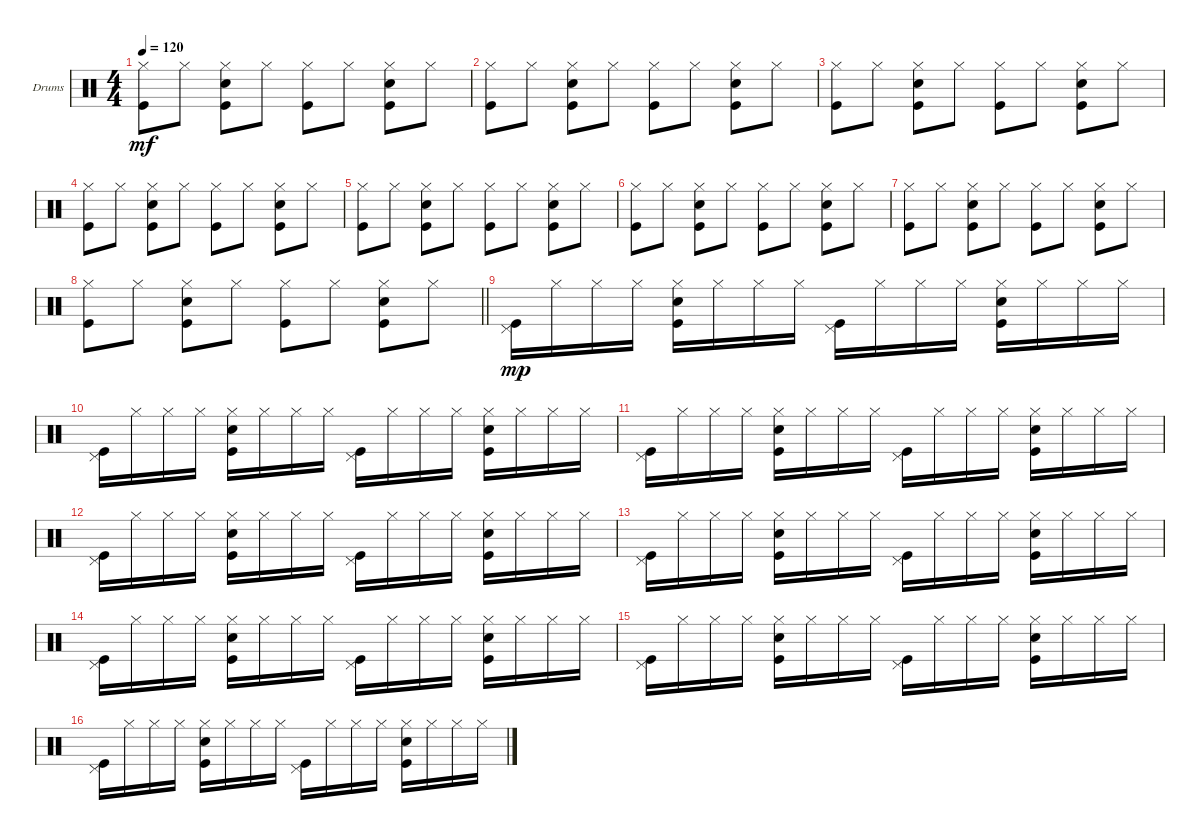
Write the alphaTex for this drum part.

\bracketExtendMode groupsimilarinstruments
\firstSystemTrackNameOrientation horizontal
\otherSystemsTrackNameOrientation horizontal
\track ("Ударные" "Drums") {instrument percussion}
\staff {score}
\articulation defaults
\ts (4 4)
\tempo 120
\clef neutral
\ks c
("Hi-Hat (closed)" "Kick (hit)").8{dy mf} "Hi-Hat (closed)".8 ("Hi-Hat (closed)" "Snare (hit) 2" "Kick (hit)").8 "Hi-Hat (closed)".8 ("Hi-Hat (closed)" "Kick (hit)").8 "Hi-Hat (closed)".8 ("Hi-Hat (closed)" "Snare (hit) 2" "Kick (hit)").8 "Hi-Hat (closed)".8 |
("Hi-Hat (closed)" "Kick (hit)").8 "Hi-Hat (closed)".8 ("Hi-Hat (closed)" "Snare (hit) 2" "Kick (hit)").8 "Hi-Hat (closed)".8 ("Hi-Hat (closed)" "Kick (hit)").8 "Hi-Hat (closed)".8 ("Hi-Hat (closed)" "Snare (hit) 2" "Kick (hit)").8 "Hi-Hat (closed)".8 |
("Hi-Hat (closed)" "Kick (hit)").8 "Hi-Hat (closed)".8 ("Hi-Hat (closed)" "Snare (hit) 2" "Kick (hit)").8 "Hi-Hat (closed)".8 ("Hi-Hat (closed)" "Kick (hit)").8 "Hi-Hat (closed)".8 ("Hi-Hat (closed)" "Snare (hit) 2" "Kick (hit)").8 "Hi-Hat (closed)".8 |
("Hi-Hat (closed)" "Kick (hit)").8 "Hi-Hat (closed)".8 ("Hi-Hat (closed)" "Snare (hit) 2" "Kick (hit)").8 "Hi-Hat (closed)".8 ("Hi-Hat (closed)" "Kick (hit)").8 "Hi-Hat (closed)".8 ("Hi-Hat (closed)" "Snare (hit) 2" "Kick (hit)").8 "Hi-Hat (closed)".8 |
("Hi-Hat (closed)" "Kick (hit)").8 "Hi-Hat (closed)".8 ("Hi-Hat (closed)" "Snare (hit) 2" "Kick (hit)").8 "Hi-Hat (closed)".8 ("Hi-Hat (closed)" "Kick (hit)").8 "Hi-Hat (closed)".8 ("Hi-Hat (closed)" "Snare (hit) 2" "Kick (hit)").8 "Hi-Hat (closed)".8 |
("Hi-Hat (closed)" "Kick (hit)").8 "Hi-Hat (closed)".8 ("Hi-Hat (closed)" "Snare (hit) 2" "Kick (hit)").8 "Hi-Hat (closed)".8 ("Hi-Hat (closed)" "Kick (hit)").8 "Hi-Hat (closed)".8 ("Hi-Hat (closed)" "Snare (hit) 2" "Kick (hit)").8 "Hi-Hat (closed)".8 |
("Hi-Hat (closed)" "Kick (hit)").8 "Hi-Hat (closed)".8 ("Hi-Hat (closed)" "Snare (hit) 2" "Kick (hit)").8 "Hi-Hat (closed)".8 ("Hi-Hat (closed)" "Kick (hit)").8 "Hi-Hat (closed)".8 ("Hi-Hat (closed)" "Snare (hit) 2" "Kick (hit)").8 "Hi-Hat (closed)".8 |
\barLineRight lightlight
("Hi-Hat (closed)" "Kick (hit)").8 "Hi-Hat (closed)".8 ("Hi-Hat (closed)" "Snare (hit) 2" "Kick (hit)").8 "Hi-Hat (closed)".8 ("Hi-Hat (closed)" "Kick (hit)").8 "Hi-Hat (closed)".8 ("Hi-Hat (closed)" "Snare (hit) 2" "Kick (hit)").8 "Hi-Hat (closed)".8 |
("Pedal Hi-Hat (hit)" "Kick (hit)").16{dy mp} "Hi-Hat (closed)".16 "Hi-Hat (closed)".16 "Hi-Hat (closed)".16 ("Hi-Hat (closed)" "Snare (hit) 2" "Kick (hit)").16 "Hi-Hat (closed)".16 "Hi-Hat (closed)".16 "Hi-Hat (closed)".16 ("Pedal Hi-Hat (hit)" "Kick (hit)").16 "Hi-Hat (closed)".16 "Hi-Hat (closed)".16 "Hi-Hat (closed)".16 ("Hi-Hat (closed)" "Snare (hit) 2" "Kick (hit)").16 "Hi-Hat (closed)".16 "Hi-Hat (closed)".16 "Hi-Hat (closed)".16 |
("Pedal Hi-Hat (hit)" "Kick (hit)").16 "Hi-Hat (closed)".16 "Hi-Hat (closed)".16 "Hi-Hat (closed)".16 ("Hi-Hat (closed)" "Snare (hit) 2" "Kick (hit)").16 "Hi-Hat (closed)".16 "Hi-Hat (closed)".16 "Hi-Hat (closed)".16 ("Pedal Hi-Hat (hit)" "Kick (hit)").16 "Hi-Hat (closed)".16 "Hi-Hat (closed)".16 "Hi-Hat (closed)".16 ("Hi-Hat (closed)" "Snare (hit) 2" "Kick (hit)").16 "Hi-Hat (closed)".16 "Hi-Hat (closed)".16 "Hi-Hat (closed)".16 |
("Pedal Hi-Hat (hit)" "Kick (hit)").16 "Hi-Hat (closed)".16 "Hi-Hat (closed)".16 "Hi-Hat (closed)".16 ("Hi-Hat (closed)" "Snare (hit) 2" "Kick (hit)").16 "Hi-Hat (closed)".16 "Hi-Hat (closed)".16 "Hi-Hat (closed)".16 ("Pedal Hi-Hat (hit)" "Kick (hit)").16 "Hi-Hat (closed)".16 "Hi-Hat (closed)".16 "Hi-Hat (closed)".16 ("Hi-Hat (closed)" "Snare (hit) 2" "Kick (hit)").16 "Hi-Hat (closed)".16 "Hi-Hat (closed)".16 "Hi-Hat (closed)".16 |
("Pedal Hi-Hat (hit)" "Kick (hit)").16 "Hi-Hat (closed)".16 "Hi-Hat (closed)".16 "Hi-Hat (closed)".16 ("Hi-Hat (closed)" "Snare (hit) 2" "Kick (hit)").16 "Hi-Hat (closed)".16 "Hi-Hat (closed)".16 "Hi-Hat (closed)".16 ("Pedal Hi-Hat (hit)" "Kick (hit)").16 "Hi-Hat (closed)".16 "Hi-Hat (closed)".16 "Hi-Hat (closed)".16 ("Hi-Hat (closed)" "Snare (hit) 2" "Kick (hit)").16 "Hi-Hat (closed)".16 "Hi-Hat (closed)".16 "Hi-Hat (closed)".16 |
("Pedal Hi-Hat (hit)" "Kick (hit)").16 "Hi-Hat (closed)".16 "Hi-Hat (closed)".16 "Hi-Hat (closed)".16 ("Hi-Hat (closed)" "Snare (hit) 2" "Kick (hit)").16 "Hi-Hat (closed)".16 "Hi-Hat (closed)".16 "Hi-Hat (closed)".16 ("Pedal Hi-Hat (hit)" "Kick (hit)").16 "Hi-Hat (closed)".16 "Hi-Hat (closed)".16 "Hi-Hat (closed)".16 ("Hi-Hat (closed)" "Snare (hit) 2" "Kick (hit)").16 "Hi-Hat (closed)".16 "Hi-Hat (closed)".16 "Hi-Hat (closed)".16 |
("Pedal Hi-Hat (hit)" "Kick (hit)").16 "Hi-Hat (closed)".16 "Hi-Hat (closed)".16 "Hi-Hat (closed)".16 ("Hi-Hat (closed)" "Snare (hit) 2" "Kick (hit)").16 "Hi-Hat (closed)".16 "Hi-Hat (closed)".16 "Hi-Hat (closed)".16 ("Pedal Hi-Hat (hit)" "Kick (hit)").16 "Hi-Hat (closed)".16 "Hi-Hat (closed)".16 "Hi-Hat (closed)".16 ("Hi-Hat (closed)" "Snare (hit) 2" "Kick (hit)").16 "Hi-Hat (closed)".16 "Hi-Hat (closed)".16 "Hi-Hat (closed)".16 |
("Pedal Hi-Hat (hit)" "Kick (hit)").16 "Hi-Hat (closed)".16 "Hi-Hat (closed)".16 "Hi-Hat (closed)".16 ("Hi-Hat (closed)" "Snare (hit) 2" "Kick (hit)").16 "Hi-Hat (closed)".16 "Hi-Hat (closed)".16 "Hi-Hat (closed)".16 ("Pedal Hi-Hat (hit)" "Kick (hit)").16 "Hi-Hat (closed)".16 "Hi-Hat (closed)".16 "Hi-Hat (closed)".16 ("Hi-Hat (closed)" "Snare (hit) 2" "Kick (hit)").16 "Hi-Hat (closed)".16 "Hi-Hat (closed)".16 "Hi-Hat (closed)".16 |
("Pedal Hi-Hat (hit)" "Kick (hit)").16 "Hi-Hat (closed)".16 "Hi-Hat (closed)".16 "Hi-Hat (closed)".16 ("Hi-Hat (closed)" "Snare (hit) 2" "Kick (hit)").16 "Hi-Hat (closed)".16 "Hi-Hat (closed)".16 "Hi-Hat (closed)".16 ("Pedal Hi-Hat (hit)" "Kick (hit)").16 "Hi-Hat (closed)".16 "Hi-Hat (closed)".16 "Hi-Hat (closed)".16 ("Hi-Hat (closed)" "Snare (hit) 2" "Kick (hit)").16 "Hi-Hat (closed)".16 "Hi-Hat (closed)".16 "Hi-Hat (closed)".16
